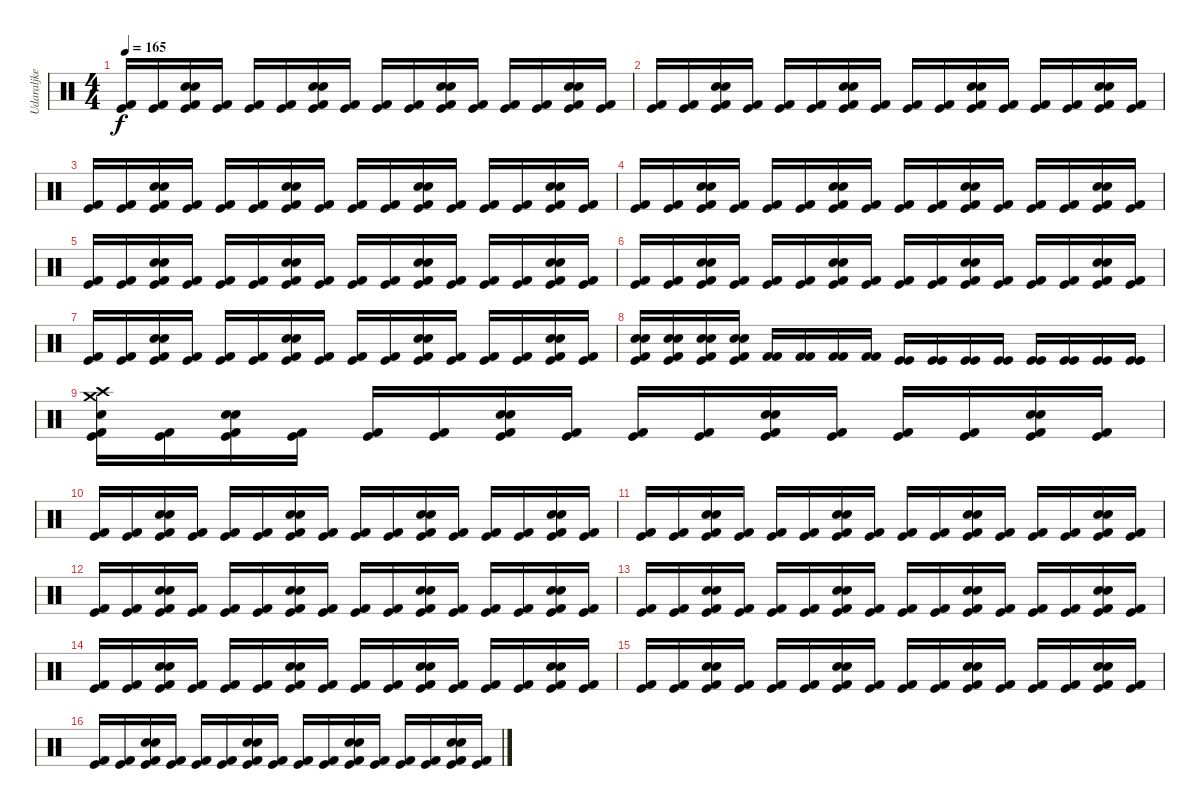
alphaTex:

\track ("Udaraljke" "Udaraljke") {instrument percussion}
\staff {score}
\articulation defaults
\ts (4 4)
\tempo 165
\clef neutral
\ks c
("Kick (hit) 2" "Kick (hit)").16{dy f} ("Kick (hit) 2" "Kick (hit)").16 ("Snare (hit) 2" "Snare (hit) 2" "Kick (hit) 2" "Kick (hit)").16 ("Kick (hit) 2" "Kick (hit)").16 ("Kick (hit) 2" "Kick (hit)").16 ("Kick (hit) 2" "Kick (hit)").16 ("Snare (hit) 2" "Snare (hit) 2" "Kick (hit) 2" "Kick (hit)").16 ("Kick (hit) 2" "Kick (hit)").16 ("Kick (hit) 2" "Kick (hit)").16 ("Kick (hit) 2" "Kick (hit)").16 ("Snare (hit) 2" "Snare (hit) 2" "Kick (hit) 2" "Kick (hit)").16 ("Kick (hit) 2" "Kick (hit)").16 ("Kick (hit) 2" "Kick (hit)").16 ("Kick (hit) 2" "Kick (hit)").16 ("Snare (hit) 2" "Snare (hit) 2" "Kick (hit) 2" "Kick (hit)").16 ("Kick (hit) 2" "Kick (hit)").16 |
("Kick (hit) 2" "Kick (hit)").16 ("Kick (hit) 2" "Kick (hit)").16 ("Snare (hit) 2" "Snare (hit) 2" "Kick (hit) 2" "Kick (hit)").16 ("Kick (hit) 2" "Kick (hit)").16 ("Kick (hit) 2" "Kick (hit)").16 ("Kick (hit) 2" "Kick (hit)").16 ("Snare (hit) 2" "Snare (hit) 2" "Kick (hit) 2" "Kick (hit)").16 ("Kick (hit) 2" "Kick (hit)").16 ("Kick (hit) 2" "Kick (hit)").16 ("Kick (hit) 2" "Kick (hit)").16 ("Snare (hit) 2" "Snare (hit) 2" "Kick (hit) 2" "Kick (hit)").16 ("Kick (hit) 2" "Kick (hit)").16 ("Kick (hit) 2" "Kick (hit)").16 ("Kick (hit) 2" "Kick (hit)").16 ("Snare (hit) 2" "Snare (hit) 2" "Kick (hit) 2" "Kick (hit)").16 ("Kick (hit) 2" "Kick (hit)").16 |
("Kick (hit) 2" "Kick (hit)").16 ("Kick (hit) 2" "Kick (hit)").16 ("Snare (hit) 2" "Snare (hit) 2" "Kick (hit) 2" "Kick (hit)").16 ("Kick (hit) 2" "Kick (hit)").16 ("Kick (hit) 2" "Kick (hit)").16 ("Kick (hit) 2" "Kick (hit)").16 ("Snare (hit) 2" "Snare (hit) 2" "Kick (hit) 2" "Kick (hit)").16 ("Kick (hit) 2" "Kick (hit)").16 ("Kick (hit) 2" "Kick (hit)").16 ("Kick (hit) 2" "Kick (hit)").16 ("Snare (hit) 2" "Snare (hit) 2" "Kick (hit) 2" "Kick (hit)").16 ("Kick (hit) 2" "Kick (hit)").16 ("Kick (hit) 2" "Kick (hit)").16 ("Kick (hit) 2" "Kick (hit)").16 ("Snare (hit) 2" "Snare (hit) 2" "Kick (hit) 2" "Kick (hit)").16 ("Kick (hit) 2" "Kick (hit)").16 |
("Kick (hit) 2" "Kick (hit)").16 ("Kick (hit) 2" "Kick (hit)").16 ("Snare (hit) 2" "Snare (hit) 2" "Kick (hit) 2" "Kick (hit)").16 ("Kick (hit) 2" "Kick (hit)").16 ("Kick (hit) 2" "Kick (hit)").16 ("Kick (hit) 2" "Kick (hit)").16 ("Snare (hit) 2" "Snare (hit) 2" "Kick (hit) 2" "Kick (hit)").16 ("Kick (hit) 2" "Kick (hit)").16 ("Kick (hit) 2" "Kick (hit)").16 ("Kick (hit) 2" "Kick (hit)").16 ("Snare (hit) 2" "Snare (hit) 2" "Kick (hit) 2" "Kick (hit)").16 ("Kick (hit) 2" "Kick (hit)").16 ("Kick (hit) 2" "Kick (hit)").16 ("Kick (hit) 2" "Kick (hit)").16 ("Snare (hit) 2" "Snare (hit) 2" "Kick (hit) 2" "Kick (hit)").16 ("Kick (hit) 2" "Kick (hit)").16 |
("Kick (hit) 2" "Kick (hit)").16 ("Kick (hit) 2" "Kick (hit)").16 ("Snare (hit) 2" "Snare (hit) 2" "Kick (hit) 2" "Kick (hit)").16 ("Kick (hit) 2" "Kick (hit)").16 ("Kick (hit) 2" "Kick (hit)").16 ("Kick (hit) 2" "Kick (hit)").16 ("Snare (hit) 2" "Snare (hit) 2" "Kick (hit) 2" "Kick (hit)").16 ("Kick (hit) 2" "Kick (hit)").16 ("Kick (hit) 2" "Kick (hit)").16 ("Kick (hit) 2" "Kick (hit)").16 ("Snare (hit) 2" "Snare (hit) 2" "Kick (hit) 2" "Kick (hit)").16 ("Kick (hit) 2" "Kick (hit)").16 ("Kick (hit) 2" "Kick (hit)").16 ("Kick (hit) 2" "Kick (hit)").16 ("Snare (hit) 2" "Snare (hit) 2" "Kick (hit) 2" "Kick (hit)").16 ("Kick (hit) 2" "Kick (hit)").16 |
("Kick (hit) 2" "Kick (hit)").16 ("Kick (hit) 2" "Kick (hit)").16 ("Snare (hit) 2" "Snare (hit) 2" "Kick (hit) 2" "Kick (hit)").16 ("Kick (hit) 2" "Kick (hit)").16 ("Kick (hit) 2" "Kick (hit)").16 ("Kick (hit) 2" "Kick (hit)").16 ("Snare (hit) 2" "Snare (hit) 2" "Kick (hit) 2" "Kick (hit)").16 ("Kick (hit) 2" "Kick (hit)").16 ("Kick (hit) 2" "Kick (hit)").16 ("Kick (hit) 2" "Kick (hit)").16 ("Snare (hit) 2" "Snare (hit) 2" "Kick (hit) 2" "Kick (hit)").16 ("Kick (hit) 2" "Kick (hit)").16 ("Kick (hit) 2" "Kick (hit)").16 ("Kick (hit) 2" "Kick (hit)").16 ("Snare (hit) 2" "Snare (hit) 2" "Kick (hit) 2" "Kick (hit)").16 ("Kick (hit) 2" "Kick (hit)").16 |
("Kick (hit) 2" "Kick (hit)").16 ("Kick (hit) 2" "Kick (hit)").16 ("Snare (hit) 2" "Snare (hit) 2" "Kick (hit) 2" "Kick (hit)").16 ("Kick (hit) 2" "Kick (hit)").16 ("Kick (hit) 2" "Kick (hit)").16 ("Kick (hit) 2" "Kick (hit)").16 ("Snare (hit) 2" "Snare (hit) 2" "Kick (hit) 2" "Kick (hit)").16 ("Kick (hit) 2" "Kick (hit)").16 ("Kick (hit) 2" "Kick (hit)").16 ("Kick (hit) 2" "Kick (hit)").16 ("Snare (hit) 2" "Snare (hit) 2" "Kick (hit) 2" "Kick (hit)").16 ("Kick (hit) 2" "Kick (hit)").16 ("Kick (hit) 2" "Kick (hit)").16 ("Kick (hit) 2" "Kick (hit)").16 ("Snare (hit) 2" "Snare (hit) 2" "Kick (hit) 2" "Kick (hit)").16 ("Kick (hit) 2" "Kick (hit)").16 |
("Snare (hit) 2" "Snare (hit) 2" "Kick (hit) 2" "Kick (hit)").16 ("Snare (hit) 2" "Snare (hit) 2" "Kick (hit) 2" "Kick (hit)").16 ("Snare (hit) 2" "Snare (hit) 2" "Kick (hit) 2" "Kick (hit)").16 ("Snare (hit) 2" "Snare (hit) 2" "Kick (hit) 2" "Kick (hit)").16 ("Kick (hit) 2" "Kick (hit) 2").16 ("Kick (hit) 2" "Kick (hit) 2").16 ("Kick (hit) 2" "Kick (hit) 2").16 ("Kick (hit) 2" "Kick (hit) 2").16 ("Kick (hit)" "Kick (hit)").16 ("Kick (hit)" "Kick (hit)").16 ("Kick (hit)" "Kick (hit)").16 ("Kick (hit)" "Kick (hit)").16 ("Kick (hit)" "Kick (hit)").16 ("Kick (hit)" "Kick (hit)").16 ("Kick (hit)" "Kick (hit)").16 ("Kick (hit)" "Kick (hit)").16 |
("Crash medium (hit)" "Crash high (hit)" "Snare (hit) 2" "Kick (hit) 2" "Kick (hit)").16 ("Kick (hit) 2" "Kick (hit)").16 ("Snare (hit) 2" "Snare (hit) 2" "Kick (hit) 2" "Kick (hit)").16 ("Kick (hit) 2" "Kick (hit)").16 ("Kick (hit) 2" "Kick (hit)").16 ("Kick (hit) 2" "Kick (hit)").16 ("Snare (hit) 2" "Snare (hit) 2" "Kick (hit) 2" "Kick (hit)").16 ("Kick (hit) 2" "Kick (hit)").16 ("Kick (hit) 2" "Kick (hit)").16 ("Kick (hit) 2" "Kick (hit)").16 ("Snare (hit) 2" "Snare (hit) 2" "Kick (hit) 2" "Kick (hit)").16 ("Kick (hit) 2" "Kick (hit)").16 ("Kick (hit) 2" "Kick (hit)").16 ("Kick (hit) 2" "Kick (hit)").16 ("Snare (hit) 2" "Snare (hit) 2" "Kick (hit) 2" "Kick (hit)").16 ("Kick (hit) 2" "Kick (hit)").16 |
("Kick (hit) 2" "Kick (hit)").16 ("Kick (hit) 2" "Kick (hit)").16 ("Snare (hit) 2" "Snare (hit) 2" "Kick (hit) 2" "Kick (hit)").16 ("Kick (hit) 2" "Kick (hit)").16 ("Kick (hit) 2" "Kick (hit)").16 ("Kick (hit) 2" "Kick (hit)").16 ("Snare (hit) 2" "Snare (hit) 2" "Kick (hit) 2" "Kick (hit)").16 ("Kick (hit) 2" "Kick (hit)").16 ("Kick (hit) 2" "Kick (hit)").16 ("Kick (hit) 2" "Kick (hit)").16 ("Snare (hit) 2" "Snare (hit) 2" "Kick (hit) 2" "Kick (hit)").16 ("Kick (hit) 2" "Kick (hit)").16 ("Kick (hit) 2" "Kick (hit)").16 ("Kick (hit) 2" "Kick (hit)").16 ("Snare (hit) 2" "Snare (hit) 2" "Kick (hit) 2" "Kick (hit)").16 ("Kick (hit) 2" "Kick (hit)").16 |
("Kick (hit) 2" "Kick (hit)").16 ("Kick (hit) 2" "Kick (hit)").16 ("Snare (hit) 2" "Snare (hit) 2" "Kick (hit) 2" "Kick (hit)").16 ("Kick (hit) 2" "Kick (hit)").16 ("Kick (hit) 2" "Kick (hit)").16 ("Kick (hit) 2" "Kick (hit)").16 ("Snare (hit) 2" "Snare (hit) 2" "Kick (hit) 2" "Kick (hit)").16 ("Kick (hit) 2" "Kick (hit)").16 ("Kick (hit) 2" "Kick (hit)").16 ("Kick (hit) 2" "Kick (hit)").16 ("Snare (hit) 2" "Snare (hit) 2" "Kick (hit) 2" "Kick (hit)").16 ("Kick (hit) 2" "Kick (hit)").16 ("Kick (hit) 2" "Kick (hit)").16 ("Kick (hit) 2" "Kick (hit)").16 ("Snare (hit) 2" "Snare (hit) 2" "Kick (hit) 2" "Kick (hit)").16 ("Kick (hit) 2" "Kick (hit)").16 |
("Kick (hit) 2" "Kick (hit)").16 ("Kick (hit) 2" "Kick (hit)").16 ("Snare (hit) 2" "Snare (hit) 2" "Kick (hit) 2" "Kick (hit)").16 ("Kick (hit) 2" "Kick (hit)").16 ("Kick (hit) 2" "Kick (hit)").16 ("Kick (hit) 2" "Kick (hit)").16 ("Snare (hit) 2" "Snare (hit) 2" "Kick (hit) 2" "Kick (hit)").16 ("Kick (hit) 2" "Kick (hit)").16 ("Kick (hit) 2" "Kick (hit)").16 ("Kick (hit) 2" "Kick (hit)").16 ("Snare (hit) 2" "Snare (hit) 2" "Kick (hit) 2" "Kick (hit)").16 ("Kick (hit) 2" "Kick (hit)").16 ("Kick (hit) 2" "Kick (hit)").16 ("Kick (hit) 2" "Kick (hit)").16 ("Snare (hit) 2" "Snare (hit) 2" "Kick (hit) 2" "Kick (hit)").16 ("Kick (hit) 2" "Kick (hit)").16 |
("Kick (hit) 2" "Kick (hit)").16 ("Kick (hit) 2" "Kick (hit)").16 ("Snare (hit) 2" "Snare (hit) 2" "Kick (hit) 2" "Kick (hit)").16 ("Kick (hit) 2" "Kick (hit)").16 ("Kick (hit) 2" "Kick (hit)").16 ("Kick (hit) 2" "Kick (hit)").16 ("Snare (hit) 2" "Snare (hit) 2" "Kick (hit) 2" "Kick (hit)").16 ("Kick (hit) 2" "Kick (hit)").16 ("Kick (hit) 2" "Kick (hit)").16 ("Kick (hit) 2" "Kick (hit)").16 ("Snare (hit) 2" "Snare (hit) 2" "Kick (hit) 2" "Kick (hit)").16 ("Kick (hit) 2" "Kick (hit)").16 ("Kick (hit) 2" "Kick (hit)").16 ("Kick (hit) 2" "Kick (hit)").16 ("Snare (hit) 2" "Snare (hit) 2" "Kick (hit) 2" "Kick (hit)").16 ("Kick (hit) 2" "Kick (hit)").16 |
("Kick (hit) 2" "Kick (hit)").16 ("Kick (hit) 2" "Kick (hit)").16 ("Snare (hit) 2" "Snare (hit) 2" "Kick (hit) 2" "Kick (hit)").16 ("Kick (hit) 2" "Kick (hit)").16 ("Kick (hit) 2" "Kick (hit)").16 ("Kick (hit) 2" "Kick (hit)").16 ("Snare (hit) 2" "Snare (hit) 2" "Kick (hit) 2" "Kick (hit)").16 ("Kick (hit) 2" "Kick (hit)").16 ("Kick (hit) 2" "Kick (hit)").16 ("Kick (hit) 2" "Kick (hit)").16 ("Snare (hit) 2" "Snare (hit) 2" "Kick (hit) 2" "Kick (hit)").16 ("Kick (hit) 2" "Kick (hit)").16 ("Kick (hit) 2" "Kick (hit)").16 ("Kick (hit) 2" "Kick (hit)").16 ("Snare (hit) 2" "Snare (hit) 2" "Kick (hit) 2" "Kick (hit)").16 ("Kick (hit) 2" "Kick (hit)").16 |
("Kick (hit) 2" "Kick (hit)").16 ("Kick (hit) 2" "Kick (hit)").16 ("Snare (hit) 2" "Snare (hit) 2" "Kick (hit) 2" "Kick (hit)").16 ("Kick (hit) 2" "Kick (hit)").16 ("Kick (hit) 2" "Kick (hit)").16 ("Kick (hit) 2" "Kick (hit)").16 ("Snare (hit) 2" "Snare (hit) 2" "Kick (hit) 2" "Kick (hit)").16 ("Kick (hit) 2" "Kick (hit)").16 ("Kick (hit) 2" "Kick (hit)").16 ("Kick (hit) 2" "Kick (hit)").16 ("Snare (hit) 2" "Snare (hit) 2" "Kick (hit) 2" "Kick (hit)").16 ("Kick (hit) 2" "Kick (hit)").16 ("Kick (hit) 2" "Kick (hit)").16 ("Kick (hit) 2" "Kick (hit)").16 ("Snare (hit) 2" "Snare (hit) 2" "Kick (hit) 2" "Kick (hit)").16 ("Kick (hit) 2" "Kick (hit)").16 |
("Kick (hit) 2" "Kick (hit)").16 ("Kick (hit) 2" "Kick (hit)").16 ("Snare (hit) 2" "Snare (hit) 2" "Kick (hit) 2" "Kick (hit)").16 ("Kick (hit) 2" "Kick (hit)").16 ("Kick (hit) 2" "Kick (hit)").16 ("Kick (hit) 2" "Kick (hit)").16 ("Snare (hit) 2" "Snare (hit) 2" "Kick (hit) 2" "Kick (hit)").16 ("Kick (hit) 2" "Kick (hit)").16 ("Kick (hit) 2" "Kick (hit)").16 ("Kick (hit) 2" "Kick (hit)").16 ("Snare (hit) 2" "Snare (hit) 2" "Kick (hit) 2" "Kick (hit)").16 ("Kick (hit) 2" "Kick (hit)").16 ("Kick (hit) 2" "Kick (hit)").16 ("Kick (hit) 2" "Kick (hit)").16 ("Snare (hit) 2" "Snare (hit) 2" "Kick (hit) 2" "Kick (hit)").16 ("Kick (hit) 2" "Kick (hit)").16
